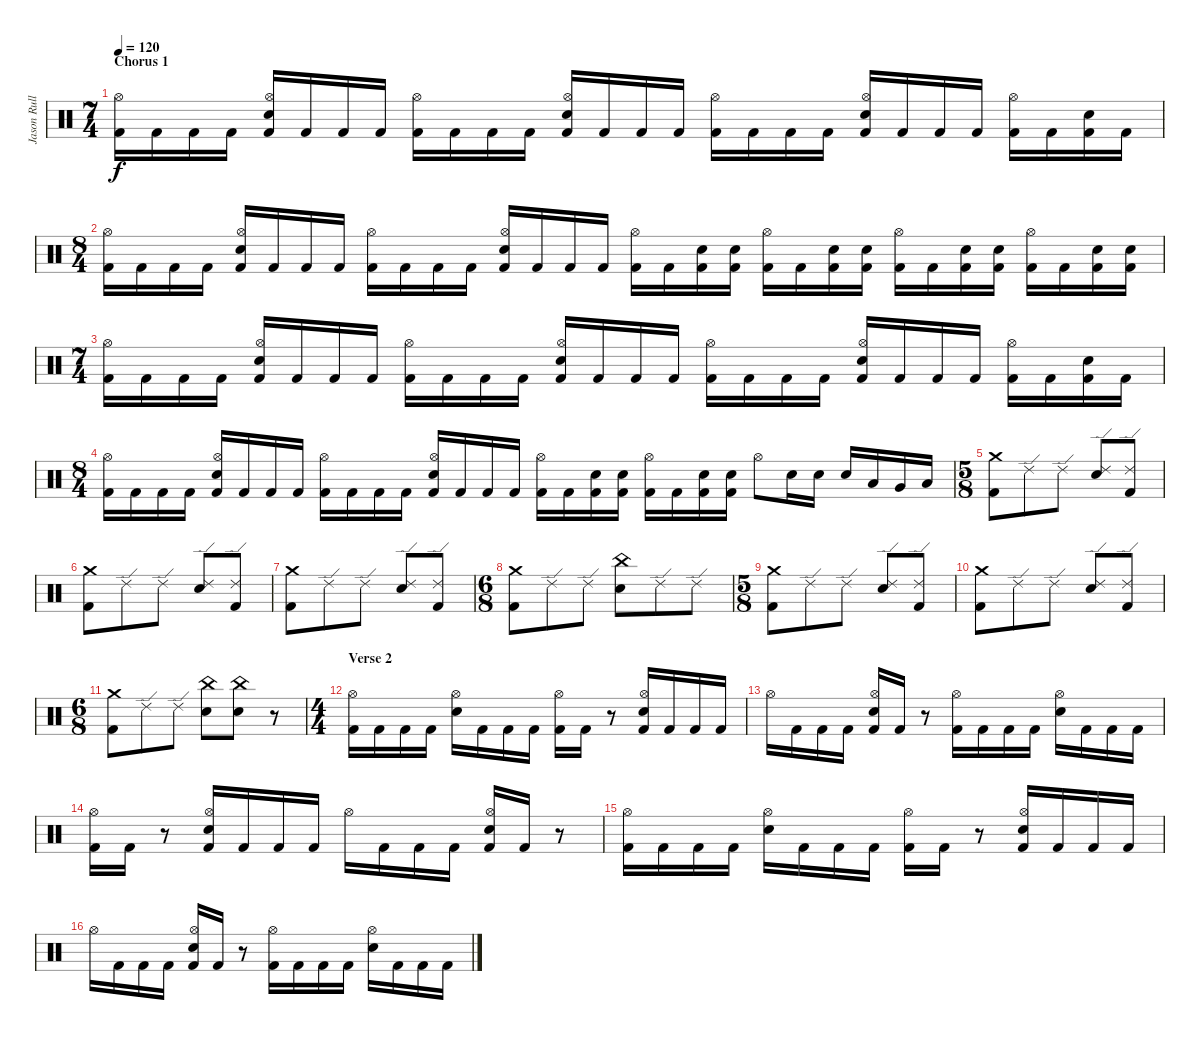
\track ("Jason Rullo" "Jason Rull") {instrument percussion}
\staff {score}
\articulation defaults
\ts (7 4)
\section ("" "Chorus 1")
\tempo 120
\clef neutral
\ks c
("Kick (hit) 2" "Hi-Hat (open)").16{dy f} "Kick (hit) 2".16 "Kick (hit) 2".16 "Kick (hit) 2".16 ("Kick (hit) 2" "Electric Snare (hit)" "Hi-Hat (open)").16 "Kick (hit) 2".16 "Kick (hit) 2".16 "Kick (hit) 2".16 ("Kick (hit) 2" "Hi-Hat (open)").16 "Kick (hit) 2".16 "Kick (hit) 2".16 "Kick (hit) 2".16 ("Kick (hit) 2" "Electric Snare (hit)" "Hi-Hat (open)").16 "Kick (hit) 2".16 "Kick (hit) 2".16 "Kick (hit) 2".16 ("Kick (hit) 2" "Hi-Hat (open)").16 "Kick (hit) 2".16 "Kick (hit) 2".16 "Kick (hit) 2".16 ("Kick (hit) 2" "Hi-Hat (open)" "Electric Snare (hit)").16 "Kick (hit) 2".16 "Kick (hit) 2".16 "Kick (hit) 2".16 ("Kick (hit) 2" "Hi-Hat (open)").16 "Kick (hit) 2".16 ("Kick (hit) 2" "Electric Snare (hit)").16 "Kick (hit) 2".16 |
\ts (8 4)
("Kick (hit) 2" "Hi-Hat (open)").16 "Kick (hit) 2".16 "Kick (hit) 2".16 "Kick (hit) 2".16 ("Kick (hit) 2" "Electric Snare (hit)" "Hi-Hat (open)").16 "Kick (hit) 2".16 "Kick (hit) 2".16 "Kick (hit) 2".16 ("Kick (hit) 2" "Hi-Hat (open)").16 "Kick (hit) 2".16 "Kick (hit) 2".16 "Kick (hit) 2".16 ("Kick (hit) 2" "Electric Snare (hit)" "Hi-Hat (open)").16 "Kick (hit) 2".16 "Kick (hit) 2".16 "Kick (hit) 2".16 ("Kick (hit) 2" "Hi-Hat (open)").16 "Kick (hit) 2".16 ("Electric Snare (hit)" "Kick (hit) 2").16 ("Electric Snare (hit)" "Kick (hit) 2").16 ("Kick (hit) 2" "Hi-Hat (open)").16 "Kick (hit) 2".16 ("Electric Snare (hit)" "Kick (hit) 2").16 ("Electric Snare (hit)" "Kick (hit) 2").16 ("Kick (hit) 2" "Hi-Hat (open)").16 "Kick (hit) 2".16 ("Kick (hit) 2" "Electric Snare (hit)").16 ("Electric Snare (hit)" "Kick (hit) 2").16 ("Hi-Hat (open)" "Kick (hit) 2").16 "Kick (hit) 2".16 ("Electric Snare (hit)" "Kick (hit) 2").16 ("Electric Snare (hit)" "Kick (hit) 2").16 |
\ts (7 4)
("Kick (hit) 2" "Hi-Hat (open)").16 "Kick (hit) 2".16 "Kick (hit) 2".16 "Kick (hit) 2".16 ("Kick (hit) 2" "Electric Snare (hit)" "Hi-Hat (open)").16 "Kick (hit) 2".16 "Kick (hit) 2".16 "Kick (hit) 2".16 ("Kick (hit) 2" "Hi-Hat (open)").16 "Kick (hit) 2".16 "Kick (hit) 2".16 "Kick (hit) 2".16 ("Kick (hit) 2" "Electric Snare (hit)" "Hi-Hat (open)").16 "Kick (hit) 2".16 "Kick (hit) 2".16 "Kick (hit) 2".16 ("Kick (hit) 2" "Hi-Hat (open)").16 "Kick (hit) 2".16 "Kick (hit) 2".16 "Kick (hit) 2".16 ("Kick (hit) 2" "Hi-Hat (open)" "Electric Snare (hit)").16 "Kick (hit) 2".16 "Kick (hit) 2".16 "Kick (hit) 2".16 ("Kick (hit) 2" "Hi-Hat (open)").16 "Kick (hit) 2".16 ("Kick (hit) 2" "Electric Snare (hit)").16 "Kick (hit) 2".16 |
\ts (8 4)
("Kick (hit) 2" "Hi-Hat (open)").16 "Kick (hit) 2".16 "Kick (hit) 2".16 "Kick (hit) 2".16 ("Kick (hit) 2" "Electric Snare (hit)" "Hi-Hat (open)").16 "Kick (hit) 2".16 "Kick (hit) 2".16 "Kick (hit) 2".16 ("Kick (hit) 2" "Hi-Hat (open)").16 "Kick (hit) 2".16 "Kick (hit) 2".16 "Kick (hit) 2".16 ("Kick (hit) 2" "Electric Snare (hit)" "Hi-Hat (open)").16 "Kick (hit) 2".16 "Kick (hit) 2".16 "Kick (hit) 2".16 ("Kick (hit) 2" "Hi-Hat (open)").16 "Kick (hit) 2".16 ("Electric Snare (hit)" "Kick (hit) 2").16 ("Electric Snare (hit)" "Kick (hit) 2").16 ("Kick (hit) 2" "Hi-Hat (open)").16 "Kick (hit) 2".16 ("Electric Snare (hit)" "Kick (hit) 2").16 ("Electric Snare (hit)" "Kick (hit) 2").16 "Hi-Hat (open)".8 "Electric Snare (hit)".16 "Electric Snare (hit)".16 "Electric Snare (hit)".16 "Low Tom (hit)".16 "Very Low Tom (hit)".16 "Low Floor Tom (hit)".16 |
\ts (5 8)
("Crash medium (hit)" "Kick (hit) 2").8 "Ride (edge) 2".8 "Ride (edge) 2".8 ("Ride (edge) 2" "Electric Snare (hit)").8 ("Ride (edge) 2" "Kick (hit) 2").8 |
("Crash medium (hit)" "Kick (hit) 2").8 "Ride (edge) 2".8 "Ride (edge) 2".8 ("Ride (edge) 2" "Electric Snare (hit)").8 ("Ride (edge) 2" "Kick (hit) 2").8 |
("Crash medium (hit)" "Kick (hit) 2").8 "Ride (edge) 2".8 "Ride (edge) 2".8 ("Ride (edge) 2" "Electric Snare (hit)").8 ("Ride (edge) 2" "Kick (hit) 2").8 |
\ts (6 8)
("Crash medium (hit)" "Kick (hit) 2").8 "Ride (edge) 2".8 "Ride (edge) 2".8 ("China (hit)" "Electric Snare (hit)").8 "Ride (edge) 2".8 "Ride (edge) 2".8 |
\ts (5 8)
("Crash medium (hit)" "Kick (hit) 2").8 "Ride (edge) 2".8 "Ride (edge) 2".8 ("Ride (edge) 2" "Electric Snare (hit)").8 ("Ride (edge) 2" "Kick (hit) 2").8 |
("Crash medium (hit)" "Kick (hit) 2").8 "Ride (edge) 2".8 "Ride (edge) 2".8 ("Ride (edge) 2" "Electric Snare (hit)").8 ("Ride (edge) 2" "Kick (hit) 2").8 |
\ts (6 8)
("Crash medium (hit)" "Kick (hit) 2").8 "Ride (edge) 2".8 "Ride (edge) 2".8 ("China (hit)" "Electric Snare (hit)").8 ("China (hit)" "Electric Snare (hit)").8 r.8 |
\ts (4 4)
\section ("" "Verse 2")
("Kick (hit) 2" "Hi-Hat (open)").16 "Kick (hit) 2".16 "Kick (hit) 2".16 "Kick (hit) 2".16 ("Electric Snare (hit)" "Hi-Hat (open)").16 "Kick (hit) 2".16 "Kick (hit) 2".16 "Kick (hit) 2".16 ("Kick (hit) 2" "Hi-Hat (open)").16 "Kick (hit) 2".16 r.8 ("Electric Snare (hit)" "Kick (hit) 2" "Hi-Hat (open)").16 "Kick (hit) 2".16 "Kick (hit) 2".16 "Kick (hit) 2".16 |
"Hi-Hat (open)".16 "Kick (hit) 2".16 "Kick (hit) 2".16 "Kick (hit) 2".16 ("Kick (hit) 2" "Electric Snare (hit)" "Hi-Hat (open)").16 "Kick (hit) 2".16 r.8 ("Kick (hit) 2" "Hi-Hat (open)").16 "Kick (hit) 2".16 "Kick (hit) 2".16 "Kick (hit) 2".16 ("Electric Snare (hit)" "Hi-Hat (open)").16 "Kick (hit) 2".16 "Kick (hit) 2".16 "Kick (hit) 2".16 |
("Kick (hit) 2" "Hi-Hat (open)").16 "Kick (hit) 2".16 r.8 ("Electric Snare (hit)" "Kick (hit) 2" "Hi-Hat (open)").16 "Kick (hit) 2".16 "Kick (hit) 2".16 "Kick (hit) 2".16 "Hi-Hat (open)".16 "Kick (hit) 2".16 "Kick (hit) 2".16 "Kick (hit) 2".16 ("Kick (hit) 2" "Electric Snare (hit)" "Hi-Hat (open)").16 "Kick (hit) 2".16 r.8 |
("Kick (hit) 2" "Hi-Hat (open)").16 "Kick (hit) 2".16 "Kick (hit) 2".16 "Kick (hit) 2".16 ("Electric Snare (hit)" "Hi-Hat (open)").16 "Kick (hit) 2".16 "Kick (hit) 2".16 "Kick (hit) 2".16 ("Kick (hit) 2" "Hi-Hat (open)").16 "Kick (hit) 2".16 r.8 ("Electric Snare (hit)" "Kick (hit) 2" "Hi-Hat (open)").16 "Kick (hit) 2".16 "Kick (hit) 2".16 "Kick (hit) 2".16 |
"Hi-Hat (open)".16 "Kick (hit) 2".16 "Kick (hit) 2".16 "Kick (hit) 2".16 ("Kick (hit) 2" "Electric Snare (hit)" "Hi-Hat (open)").16 "Kick (hit) 2".16 r.8 ("Kick (hit) 2" "Hi-Hat (open)").16 "Kick (hit) 2".16 "Kick (hit) 2".16 "Kick (hit) 2".16 ("Electric Snare (hit)" "Hi-Hat (open)").16 "Kick (hit) 2".16 "Kick (hit) 2".16 "Kick (hit) 2".16
